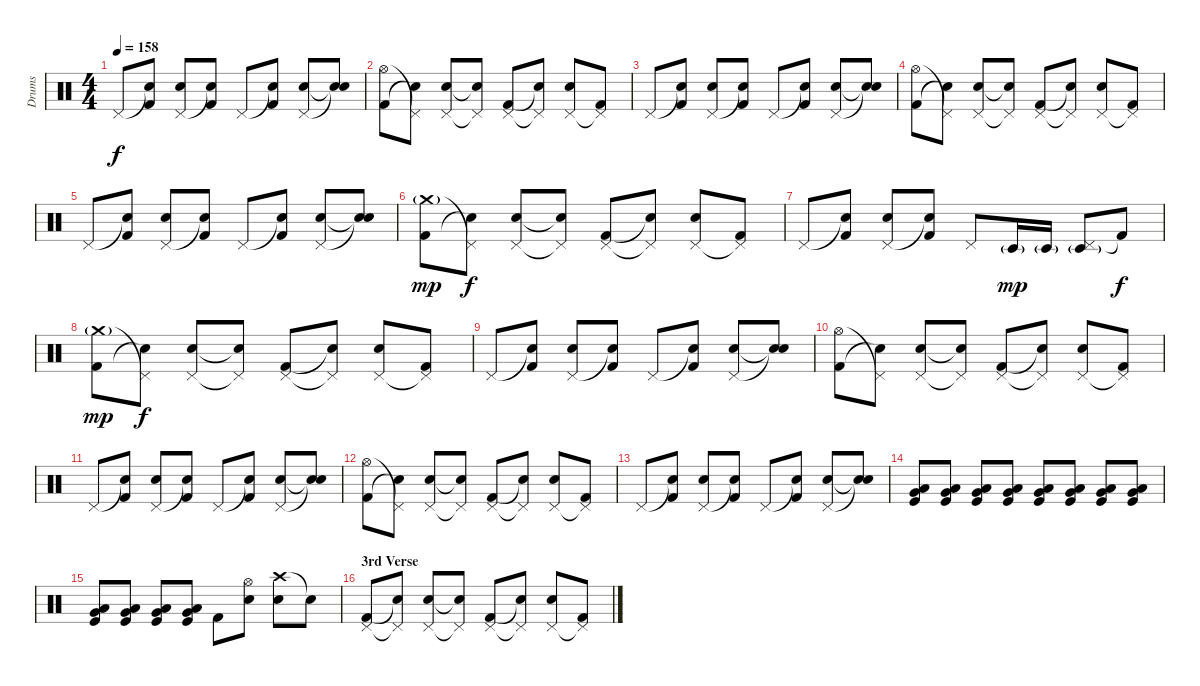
\track ("Drums" "Drums") {instrument percussion}
\staff {score}
\articulation defaults
\ts (4 4)
\tempo 158
\clef neutral
\ks c "Pedal Hi-Hat (hit)".8{dy f}
("Snare (hit)"{t} "Kick (hit) 2").8 ("Pedal Hi-Hat (hit)" "Electric Snare (hit)").8 ("Snare (hit)"{t} "Kick (hit) 2").8 "Pedal Hi-Hat (hit)".8 ("Snare (hit)"{t} "Kick (hit) 2").8 ("Pedal Hi-Hat (hit)" "Electric Snare (hit)").8 ("Snare (hit)"{t} "Snare (hit)"{t}).8 |
("Hi-Hat (open)" "Kick (hit) 2").8 ("Pedal Hi-Hat (hit)"{t} "Electric Snare (hit)"{t}).8 ("Pedal Hi-Hat (hit)" "Electric Snare (hit)").8 ("Pedal Hi-Hat (hit)"{t} "Snare (hit)"{t}).8 ("Pedal Hi-Hat (hit)" "Kick (hit) 2").8 ("Pedal Hi-Hat (hit)"{t} "Electric Snare (hit)"{t}).8 ("Pedal Hi-Hat (hit)" "Electric Snare (hit)").8 ("Pedal Hi-Hat (hit)"{t} "Kick (hit) 2").8 |
"Pedal Hi-Hat (hit)".8 ("Snare (hit)"{t} "Kick (hit) 2").8 ("Pedal Hi-Hat (hit)" "Electric Snare (hit)").8 ("Snare (hit)"{t} "Kick (hit) 2").8 "Pedal Hi-Hat (hit)".8 ("Snare (hit)"{t} "Kick (hit) 2").8 ("Pedal Hi-Hat (hit)" "Electric Snare (hit)").8 ("Snare (hit)"{t} "Snare (hit)"{t}).8 |
("Hi-Hat (open)" "Kick (hit) 2").8 ("Pedal Hi-Hat (hit)"{t} "Electric Snare (hit)"{t}).8 ("Pedal Hi-Hat (hit)" "Electric Snare (hit)").8 ("Pedal Hi-Hat (hit)"{t} "Snare (hit)"{t}).8 ("Pedal Hi-Hat (hit)" "Kick (hit) 2").8 ("Pedal Hi-Hat (hit)"{t} "Electric Snare (hit)"{t}).8 ("Pedal Hi-Hat (hit)" "Electric Snare (hit)").8 ("Pedal Hi-Hat (hit)"{t} "Kick (hit) 2").8 |
"Pedal Hi-Hat (hit)".8 ("Snare (hit)"{t} "Kick (hit) 2").8 ("Pedal Hi-Hat (hit)" "Electric Snare (hit)").8 ("Snare (hit)"{t} "Kick (hit) 2").8 "Pedal Hi-Hat (hit)".8 ("Snare (hit)"{t} "Kick (hit) 2").8 ("Pedal Hi-Hat (hit)" "Electric Snare (hit)").8 ("Snare (hit)"{t} "Snare (hit)"{t}).8 |
("Crash medium (hit)"{g} "Kick (hit) 2").8{dy mp} ("Pedal Hi-Hat (hit)"{t} "Electric Snare (hit)"{t}).8{dy f} ("Pedal Hi-Hat (hit)" "Electric Snare (hit)").8 ("Pedal Hi-Hat (hit)"{t} "Snare (hit)"{t}).8 ("Pedal Hi-Hat (hit)" "Kick (hit) 2").8 ("Pedal Hi-Hat (hit)"{t} "Electric Snare (hit)"{t}).8 ("Pedal Hi-Hat (hit)" "Electric Snare (hit)").8 ("Pedal Hi-Hat (hit)"{t} "Kick (hit) 2").8 |
"Pedal Hi-Hat (hit)".8 ("Snare (hit)"{t} "Kick (hit) 2").8 ("Pedal Hi-Hat (hit)" "Electric Snare (hit)").8 ("Snare (hit)"{t} "Kick (hit) 2").8 "Pedal Hi-Hat (hit)".8 "Timbale low (hit)"{g}.16{dy mp} "Timbale low (hit)"{g}.16 ("Pedal Hi-Hat (hit)" "Timbale low (hit)"{g}).8 "Kick (hit) 2"{t}.8{dy f} |
("Crash medium (hit)"{g} "Kick (hit) 2").8{dy mp} ("Pedal Hi-Hat (hit)"{t} "Electric Snare (hit)"{t}).8{dy f} ("Pedal Hi-Hat (hit)" "Electric Snare (hit)").8 ("Pedal Hi-Hat (hit)"{t} "Snare (hit)"{t}).8 ("Pedal Hi-Hat (hit)" "Kick (hit) 2").8 ("Pedal Hi-Hat (hit)"{t} "Electric Snare (hit)"{t}).8 ("Pedal Hi-Hat (hit)" "Electric Snare (hit)").8 ("Pedal Hi-Hat (hit)"{t} "Kick (hit) 2").8 |
"Pedal Hi-Hat (hit)".8 ("Snare (hit)"{t} "Kick (hit) 2").8 ("Pedal Hi-Hat (hit)" "Electric Snare (hit)").8 ("Snare (hit)"{t} "Kick (hit) 2").8 "Pedal Hi-Hat (hit)".8 ("Snare (hit)"{t} "Kick (hit) 2").8 ("Pedal Hi-Hat (hit)" "Electric Snare (hit)").8 ("Snare (hit)"{t} "Snare (hit)"{t}).8 |
("Hi-Hat (open)" "Kick (hit) 2").8 ("Pedal Hi-Hat (hit)"{t} "Electric Snare (hit)"{t}).8 ("Pedal Hi-Hat (hit)" "Electric Snare (hit)").8 ("Pedal Hi-Hat (hit)"{t} "Snare (hit)"{t}).8 ("Pedal Hi-Hat (hit)" "Kick (hit) 2").8 ("Pedal Hi-Hat (hit)"{t} "Electric Snare (hit)"{t}).8 ("Pedal Hi-Hat (hit)" "Electric Snare (hit)").8 ("Pedal Hi-Hat (hit)"{t} "Kick (hit) 2").8 |
"Pedal Hi-Hat (hit)".8 ("Snare (hit)"{t} "Kick (hit) 2").8 ("Pedal Hi-Hat (hit)" "Electric Snare (hit)").8 ("Snare (hit)"{t} "Kick (hit) 2").8 "Pedal Hi-Hat (hit)".8 ("Snare (hit)"{t} "Kick (hit) 2").8 ("Pedal Hi-Hat (hit)" "Electric Snare (hit)").8 ("Snare (hit)"{t} "Snare (hit)"{t}).8 |
("Hi-Hat (open)" "Kick (hit) 2").8 ("Pedal Hi-Hat (hit)"{t} "Electric Snare (hit)"{t}).8 ("Pedal Hi-Hat (hit)" "Electric Snare (hit)").8 ("Pedal Hi-Hat (hit)"{t} "Snare (hit)"{t}).8 ("Pedal Hi-Hat (hit)" "Kick (hit) 2").8 ("Pedal Hi-Hat (hit)"{t} "Electric Snare (hit)"{t}).8 ("Pedal Hi-Hat (hit)" "Electric Snare (hit)").8 ("Pedal Hi-Hat (hit)"{t} "Kick (hit) 2").8 |
"Pedal Hi-Hat (hit)".8 ("Snare (hit)"{t} "Kick (hit) 2").8 ("Pedal Hi-Hat (hit)" "Electric Snare (hit)").8 ("Snare (hit)"{t} "Kick (hit) 2").8 "Pedal Hi-Hat (hit)".8 ("Snare (hit)"{t} "Kick (hit) 2").8 ("Pedal Hi-Hat (hit)" "Electric Snare (hit)").8 ("Snare (hit)"{t} "Snare (hit)"{t}).8 |
("Kick (hit)" "Low Tom (hit)" "Very Low Tom (hit)").8 ("Kick (hit)" "Low Tom (hit)" "Very Low Tom (hit)").8 ("Kick (hit)" "Low Tom (hit)" "Very Low Tom (hit)").8 ("Kick (hit)" "Low Tom (hit)" "Very Low Tom (hit)").8 ("Kick (hit)" "Low Tom (hit)" "Very Low Tom (hit)").8 ("Kick (hit)" "Low Tom (hit)" "Very Low Tom (hit)").8 ("Kick (hit)" "Low Tom (hit)" "Very Low Tom (hit)").8 ("Kick (hit)" "Low Tom (hit)" "Very Low Tom (hit)").8 |
("Kick (hit)" "Very Low Tom (hit)" "Low Tom (hit)").8 ("Kick (hit)" "Very Low Tom (hit)" "Low Tom (hit)").8 ("Kick (hit)" "Very Low Tom (hit)" "Low Tom (hit)").8 ("Kick (hit)" "Very Low Tom (hit)" "Low Tom (hit)").8 "Kick (hit) 2".8 ("Hi-Hat (open)" "Electric Snare (hit)").8 ("Crash high (hit)" "Electric Snare (hit)").8 "Snare (hit)"{t}.8 |
\section ("" "3rd Verse")
("Pedal Hi-Hat (hit)" "Kick (hit) 2").8 ("Pedal Hi-Hat (hit)"{t} "Electric Snare (hit)"{t}).8 ("Pedal Hi-Hat (hit)" "Electric Snare (hit)").8 ("Pedal Hi-Hat (hit)"{t} "Snare (hit)"{t}).8 ("Pedal Hi-Hat (hit)" "Kick (hit) 2").8 ("Pedal Hi-Hat (hit)"{t} "Electric Snare (hit)"{t}).8 ("Pedal Hi-Hat (hit)" "Electric Snare (hit)").8 ("Pedal Hi-Hat (hit)"{t} "Kick (hit) 2").8
